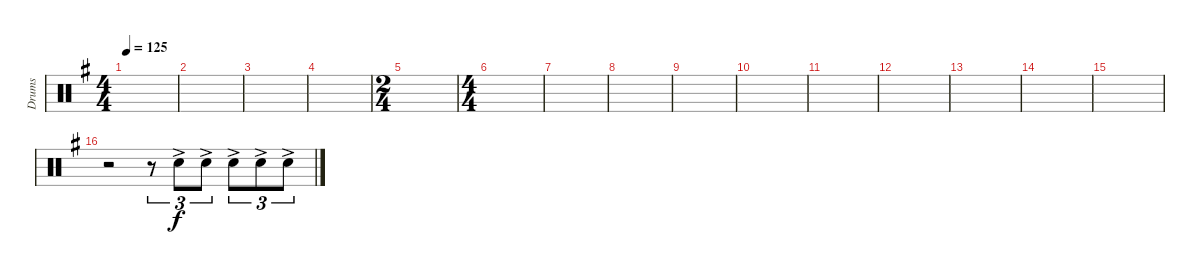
\defaultSystemsLayout 4
\bracketExtendMode groupsimilarinstruments
\otherSystemsTrackNameOrientation horizontal
\track ("Drumkit" "Drums") {instrument percussion}
\staff {score}
\articulation defaults
\ts (4 4)
\tempo 125
\clef neutral
\scale
0.333333
\ks g
|
\scale
0.333333 |
\scale
0.262911 |
\scale
0.262911 |
\ts (2 4)
\scale
0.474178 |
\ts (4 4)
\scale
0.474178 |
\scale
0.262911 |
\scale
0.262911 |
\scale
0.333333 |
\scale
0.333333 |
\scale
0.333333 |
\scale
0.333333 |
\scale
0.333333 |
\scale
0.333333 |
\scale
0.333333 |
\scale
0.333333 r.2{beam Down} r.8{tu (3 2) beam Down} "Snare (hit) 2"{ac acc forcenatural}.8{tu (3 2) beam Down} "Snare (hit) 2"{ac acc forcenatural}.8{tu (3 2) beam Down} "Snare (hit) 2"{ac acc forcenatural}.8{tu (3 2) beam Down} "Snare (hit) 2"{ac acc forcenatural}.8{tu (3 2) beam Down} "Snare (hit) 2"{ac acc forcenatural}.8{tu (3 2) beam Down}
